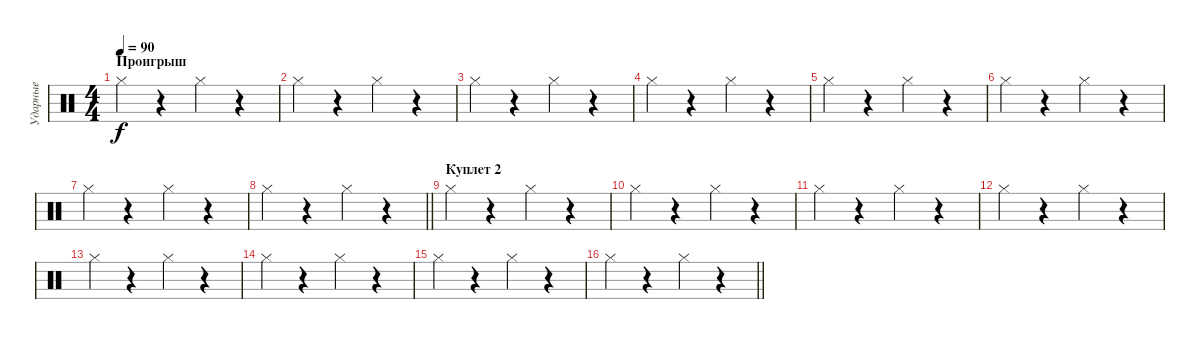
\track ("Ударные" "Ударные") {instrument percussion}
\staff {score}
\articulation defaults
\ts (4 4)
\section ("" "Проигрыш")
\tempo 90
\clef neutral
\ks c "Hi-Hat (closed)".4{dy f}
r.4 "Hi-Hat (closed)".4 r.4 |
"Hi-Hat (closed)".4 r.4 "Hi-Hat (closed)".4 r.4 |
"Hi-Hat (closed)".4 r.4 "Hi-Hat (closed)".4 r.4 |
"Hi-Hat (closed)".4 r.4 "Hi-Hat (closed)".4 r.4 |
"Hi-Hat (closed)".4 r.4 "Hi-Hat (closed)".4 r.4 |
"Hi-Hat (closed)".4 r.4 "Hi-Hat (closed)".4 r.4 |
"Hi-Hat (closed)".4 r.4 "Hi-Hat (closed)".4 r.4 |
\barLineRight lightlight "Hi-Hat (closed)".4
r.4 "Hi-Hat (closed)".4 r.4 |
\section ("" "Куплет 2")
"Hi-Hat (closed)".4 r.4 "Hi-Hat (closed)".4 r.4 |
"Hi-Hat (closed)".4 r.4 "Hi-Hat (closed)".4 r.4 |
"Hi-Hat (closed)".4 r.4 "Hi-Hat (closed)".4 r.4 |
"Hi-Hat (closed)".4 r.4 "Hi-Hat (closed)".4 r.4 |
"Hi-Hat (closed)".4 r.4 "Hi-Hat (closed)".4 r.4 |
"Hi-Hat (closed)".4 r.4 "Hi-Hat (closed)".4 r.4 |
"Hi-Hat (closed)".4 r.4 "Hi-Hat (closed)".4 r.4 |
\barLineRight lightlight "Hi-Hat (closed)".4
r.4 "Hi-Hat (closed)".4 r.4
